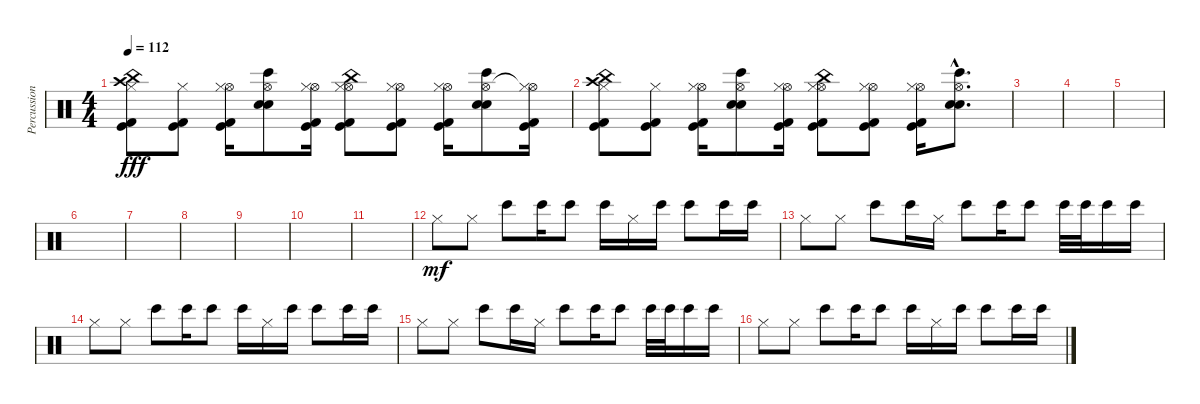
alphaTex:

\track ("Percussion" "Percussion") {instrument percussion}
\staff {score}
\articulation defaults
\ts (4 4)
\tempo 112
\clef neutral
\ks c
("China (hit)" "Crash high (hit)" "Kick (hit)" "Hi-Hat (closed)" "Kick (hit) 2").8{dy fff} ("Kick (hit)" "Hi-Hat (closed)" "Kick (hit) 2").8 ("Hi-Hat (open)" "Kick (hit)" "Hi-Hat (closed)" "Kick (hit) 2").16 ("Hi-Hat (open)" "Electric Snare (hit)" "Bongo High (hit)" "Snare (hit) 2").8 ("Hi-Hat (open)" "Kick (hit)" "Hi-Hat (closed)" "Kick (hit) 2").16 ("China (hit)" "Hi-Hat (open)" "Kick (hit)" "Hi-Hat (closed)" "Kick (hit) 2").8 ("Hi-Hat (open)" "Kick (hit)" "Hi-Hat (closed)" "Kick (hit) 2").8 ("Hi-Hat (open)" "Kick (hit)" "Hi-Hat (closed)" "Kick (hit) 2").16 ("Hi-Hat (open)" "Electric Snare (hit)" "Bongo High (hit)" "Snare (hit) 2").8 ("Hi-Hat (open)"{t} "Kick (hit)" "Hi-Hat (closed)" "Kick (hit) 2").16 |
("China (hit)" "Crash high (hit)" "Kick (hit)" "Hi-Hat (closed)" "Kick (hit) 2").8 ("Kick (hit)" "Hi-Hat (closed)" "Kick (hit) 2").8 ("Hi-Hat (open)" "Kick (hit)" "Hi-Hat (closed)" "Kick (hit) 2").16 ("Hi-Hat (open)" "Electric Snare (hit)" "Bongo High (hit)" "Snare (hit) 2").8 ("Hi-Hat (open)" "Kick (hit)" "Hi-Hat (closed)" "Kick (hit) 2").16 ("China (hit)" "Hi-Hat (open)" "Kick (hit)" "Hi-Hat (closed)" "Kick (hit) 2").8 ("Hi-Hat (open)" "Kick (hit)" "Hi-Hat (closed)" "Kick (hit) 2").8 ("Hi-Hat (open)" "Kick (hit)" "Hi-Hat (closed)" "Kick (hit) 2").16 ("Hi-Hat (open)"{hac} "Electric Snare (hit)"{hac} "Bongo High (hit)"{hac} "Snare (hit) 2"{hac}).8{d} |
|
|
|
|
|
|
|
|
|
"Hi-Hat (closed)".8{dy mf} "Hi-Hat (closed)".8 "Bongo High (hit)".8 "Bongo High (hit)".16 "Bongo High (hit)".8 "Bongo High (hit)".16 "Hi-Hat (closed)".16 "Bongo High (hit)".16 "Bongo High (hit)".8 "Bongo High (hit)".16 "Bongo High (hit)".16 |
"Hi-Hat (closed)".8 "Hi-Hat (closed)".8 "Bongo High (hit)".8 "Bongo High (hit)".16 "Hi-Hat (closed)".16 "Bongo High (hit)".8 "Bongo High (hit)".16 "Bongo High (hit)".8 "Bongo High (hit)".32 "Bongo High (hit)".32 "Bongo High (hit)".16 "Bongo High (hit)".16 |
"Hi-Hat (closed)".8 "Hi-Hat (closed)".8 "Bongo High (hit)".8 "Bongo High (hit)".16 "Bongo High (hit)".8 "Bongo High (hit)".16 "Hi-Hat (closed)".16 "Bongo High (hit)".16 "Bongo High (hit)".8 "Bongo High (hit)".16 "Bongo High (hit)".16 |
"Hi-Hat (closed)".8 "Hi-Hat (closed)".8 "Bongo High (hit)".8 "Bongo High (hit)".16 "Hi-Hat (closed)".16 "Bongo High (hit)".8 "Bongo High (hit)".16 "Bongo High (hit)".8 "Bongo High (hit)".32 "Bongo High (hit)".32 "Bongo High (hit)".16 "Bongo High (hit)".16 |
"Hi-Hat (closed)".8 "Hi-Hat (closed)".8 "Bongo High (hit)".8 "Bongo High (hit)".16 "Bongo High (hit)".8 "Bongo High (hit)".16 "Hi-Hat (closed)".16 "Bongo High (hit)".16 "Bongo High (hit)".8 "Bongo High (hit)".16 "Bongo High (hit)".16
